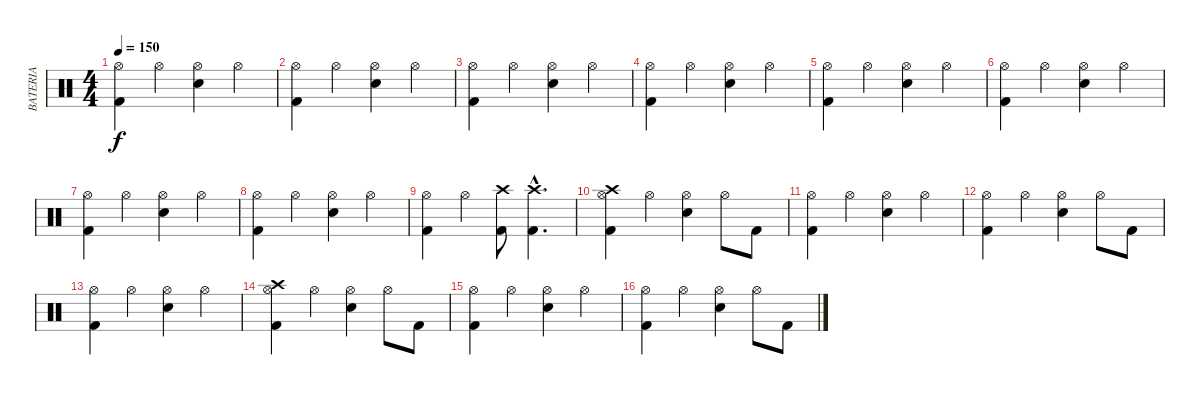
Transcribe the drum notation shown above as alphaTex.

\track ("BATERIA" "BATERIA") {instrument percussion}
\staff {score}
\articulation defaults
\ts (4 4)
\tempo 150
\clef neutral
\ks c
("Hi-Hat (open)" "Kick (hit) 2").4{dy f} "Hi-Hat (open)".4 ("Hi-Hat (open)" "Snare (hit) 2").4 "Hi-Hat (open)".4 |
("Hi-Hat (open)" "Kick (hit) 2").4 "Hi-Hat (open)".4 ("Hi-Hat (open)" "Snare (hit) 2").4 "Hi-Hat (open)".4 |
("Hi-Hat (open)" "Kick (hit) 2").4 "Hi-Hat (open)".4 ("Hi-Hat (open)" "Snare (hit) 2").4 "Hi-Hat (open)".4 |
("Hi-Hat (open)" "Kick (hit) 2").4 "Hi-Hat (open)".4 ("Hi-Hat (open)" "Snare (hit) 2").4 "Hi-Hat (open)".4 |
("Hi-Hat (open)" "Kick (hit) 2").4 "Hi-Hat (open)".4 ("Hi-Hat (open)" "Snare (hit) 2").4 "Hi-Hat (open)".4 |
("Hi-Hat (open)" "Kick (hit) 2").4 "Hi-Hat (open)".4 ("Hi-Hat (open)" "Snare (hit) 2").4 "Hi-Hat (open)".4 |
("Hi-Hat (open)" "Kick (hit) 2").4 "Hi-Hat (open)".4 ("Hi-Hat (open)" "Snare (hit) 2").4 "Hi-Hat (open)".4 |
("Hi-Hat (open)" "Kick (hit) 2").4 "Hi-Hat (open)".4 ("Hi-Hat (open)" "Snare (hit) 2").4 "Hi-Hat (open)".4 |
("Hi-Hat (open)" "Kick (hit) 2").4 "Hi-Hat (open)".4 ("Crash high (hit)" "Kick (hit) 2").8 ("Crash high (hit)"{hac} "Kick (hit) 2"{hac}).4{d} |
("Crash high (hit)" "Hi-Hat (open)" "Kick (hit) 2").4 "Hi-Hat (open)".4 ("Hi-Hat (open)" "Snare (hit) 2").4 "Hi-Hat (open)".8 "Kick (hit) 2".8 |
("Hi-Hat (open)" "Kick (hit) 2").4 "Hi-Hat (open)".4 ("Hi-Hat (open)" "Snare (hit) 2").4 "Hi-Hat (open)".4 |
("Hi-Hat (open)" "Kick (hit) 2").4 "Hi-Hat (open)".4 ("Hi-Hat (open)" "Snare (hit) 2").4 "Hi-Hat (open)".8 "Kick (hit) 2".8 |
("Hi-Hat (open)" "Kick (hit) 2").4 "Hi-Hat (open)".4 ("Hi-Hat (open)" "Snare (hit) 2").4 "Hi-Hat (open)".4 |
("Crash high (hit)" "Hi-Hat (open)" "Kick (hit) 2").4 "Hi-Hat (open)".4 ("Hi-Hat (open)" "Snare (hit) 2").4 "Hi-Hat (open)".8 "Kick (hit) 2".8 |
("Hi-Hat (open)" "Kick (hit) 2").4 "Hi-Hat (open)".4 ("Hi-Hat (open)" "Snare (hit) 2").4 "Hi-Hat (open)".4 |
("Hi-Hat (open)" "Kick (hit) 2").4 "Hi-Hat (open)".4 ("Hi-Hat (open)" "Snare (hit) 2").4 "Hi-Hat (open)".8 "Kick (hit) 2".8
